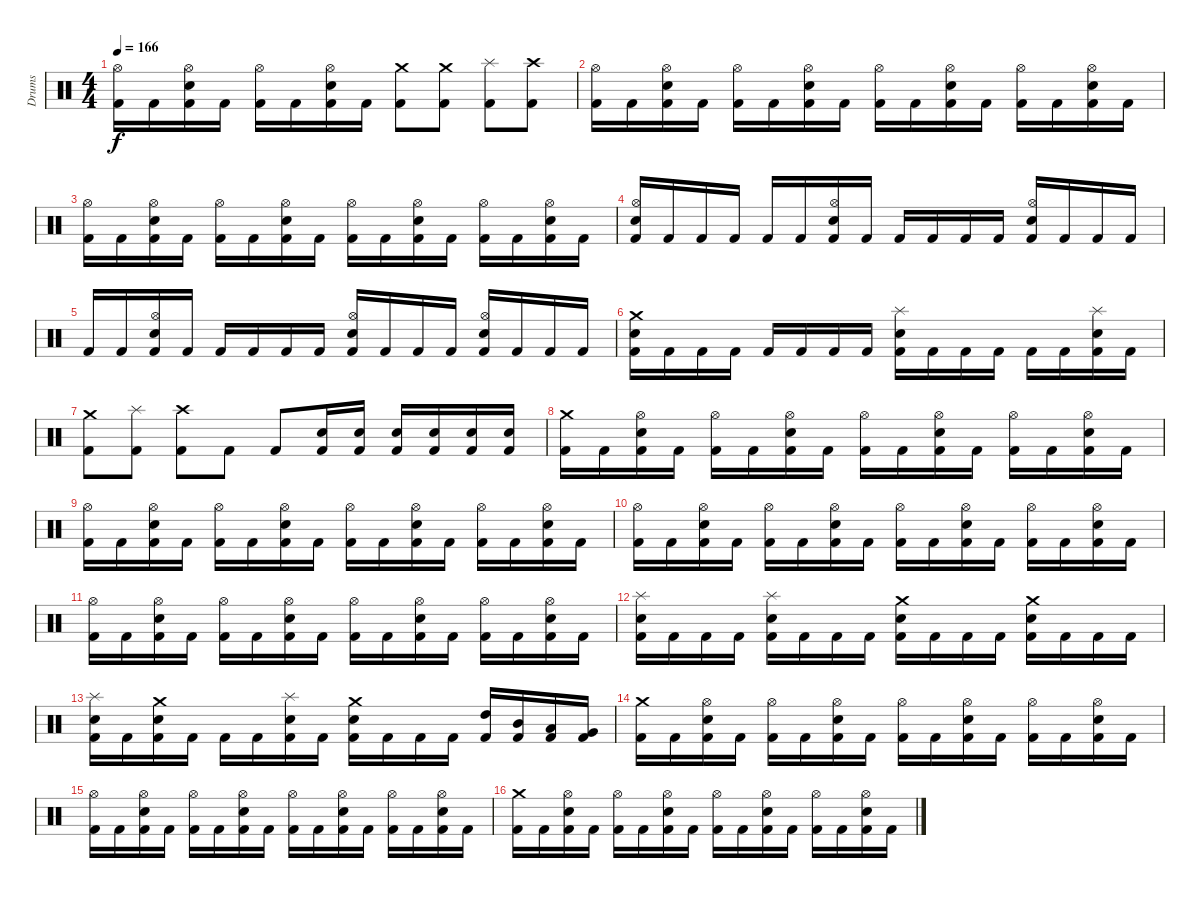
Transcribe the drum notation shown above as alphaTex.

\track ("Drums" "Drums") {instrument percussion}
\staff {score}
\articulation defaults
\ts (4 4)
\tempo 166
\clef neutral
\ks c
("Kick (hit) 2" "Hi-Hat (open)").16{dy f} "Kick (hit) 2".16 ("Kick (hit) 2" "Electric Snare (hit)" "Hi-Hat (open)").16 "Kick (hit) 2".16 ("Kick (hit) 2" "Hi-Hat (open)").16 "Kick (hit) 2".16 ("Kick (hit) 2" "Electric Snare (hit)" "Hi-Hat (open)").16 "Kick (hit) 2".16 ("Kick (hit) 2" "Crash medium (hit)").8 ("Kick (hit) 2" "Crash medium (hit)").8 ("Kick (hit) 2" "Splash (hit)").8 ("Kick (hit) 2" "Crash high (hit)").8 |
("Kick (hit) 2" "Hi-Hat (open)").16 "Kick (hit) 2".16 ("Kick (hit) 2" "Electric Snare (hit)" "Hi-Hat (open)").16 "Kick (hit) 2".16 ("Kick (hit) 2" "Hi-Hat (open)").16 "Kick (hit) 2".16 ("Kick (hit) 2" "Electric Snare (hit)" "Hi-Hat (open)").16 "Kick (hit) 2".16 ("Kick (hit) 2" "Hi-Hat (open)").16 "Kick (hit) 2".16 ("Kick (hit) 2" "Electric Snare (hit)" "Hi-Hat (open)").16 "Kick (hit) 2".16 ("Kick (hit) 2" "Hi-Hat (open)").16 "Kick (hit) 2".16 ("Kick (hit) 2" "Electric Snare (hit)" "Hi-Hat (open)").16 "Kick (hit) 2".16 |
("Kick (hit) 2" "Hi-Hat (open)").16 "Kick (hit) 2".16 ("Kick (hit) 2" "Electric Snare (hit)" "Hi-Hat (open)").16 "Kick (hit) 2".16 ("Kick (hit) 2" "Hi-Hat (open)").16 "Kick (hit) 2".16 ("Kick (hit) 2" "Electric Snare (hit)" "Hi-Hat (open)").16 "Kick (hit) 2".16 ("Kick (hit) 2" "Hi-Hat (open)").16 "Kick (hit) 2".16 ("Kick (hit) 2" "Electric Snare (hit)" "Hi-Hat (open)").16 "Kick (hit) 2".16 ("Kick (hit) 2" "Hi-Hat (open)").16 "Kick (hit) 2".16 ("Kick (hit) 2" "Electric Snare (hit)" "Hi-Hat (open)").16 "Kick (hit) 2".16 |
("Kick (hit) 2" "Electric Snare (hit)" "Hi-Hat (open)").16 "Kick (hit) 2".16 "Kick (hit) 2".16 "Kick (hit) 2".16 "Kick (hit) 2".16 "Kick (hit) 2".16 ("Kick (hit) 2" "Electric Snare (hit)" "Hi-Hat (open)").16 "Kick (hit) 2".16 "Kick (hit) 2".16 "Kick (hit) 2".16 "Kick (hit) 2".16 "Kick (hit) 2".16 ("Kick (hit) 2" "Electric Snare (hit)" "Hi-Hat (open)").16 "Kick (hit) 2".16 "Kick (hit) 2".16 "Kick (hit) 2".16 |
\section ("" "")
"Kick (hit) 2".16 "Kick (hit) 2".16 ("Kick (hit) 2" "Electric Snare (hit)" "Hi-Hat (open)").16 "Kick (hit) 2".16 "Kick (hit) 2".16 "Kick (hit) 2".16 "Kick (hit) 2".16 "Kick (hit) 2".16 ("Kick (hit) 2" "Electric Snare (hit)" "Hi-Hat (open)").16 "Kick (hit) 2".16 "Kick (hit) 2".16 "Kick (hit) 2".16 ("Kick (hit) 2" "Electric Snare (hit)" "Hi-Hat (open)").16 "Kick (hit) 2".16 "Kick (hit) 2".16 "Kick (hit) 2".16 |
("Kick (hit) 2" "Electric Snare (hit)" "Crash medium (hit)").16 "Kick (hit) 2".16 "Kick (hit) 2".16 "Kick (hit) 2".16 "Kick (hit) 2".16 "Kick (hit) 2".16 "Kick (hit) 2".16 "Kick (hit) 2".16 ("Kick (hit) 2" "Electric Snare (hit)" "Splash (hit)").16 "Kick (hit) 2".16 "Kick (hit) 2".16 "Kick (hit) 2".16 "Kick (hit) 2".16 "Kick (hit) 2".16 ("Kick (hit) 2" "Electric Snare (hit)" "Splash (hit)").16 "Kick (hit) 2".16 |
("Kick (hit) 2" "Crash medium (hit)").8 ("Kick (hit) 2" "Splash (hit)").8 ("Kick (hit) 2" "Crash high (hit)").8 "Kick (hit) 2".8 "Kick (hit) 2".8 ("Kick (hit) 2" "Electric Snare (hit)").16 ("Kick (hit) 2" "Electric Snare (hit)").16 ("Kick (hit) 2" "Electric Snare (hit)").16 ("Kick (hit) 2" "Electric Snare (hit)").16 ("Kick (hit) 2" "Electric Snare (hit)").16 ("Kick (hit) 2" "Electric Snare (hit)").16 |
("Kick (hit) 2" "Crash medium (hit)").16 "Kick (hit) 2".16 ("Kick (hit) 2" "Electric Snare (hit)" "Hi-Hat (open)").16 "Kick (hit) 2".16 ("Kick (hit) 2" "Hi-Hat (open)").16 "Kick (hit) 2".16 ("Kick (hit) 2" "Electric Snare (hit)" "Hi-Hat (open)").16 "Kick (hit) 2".16 ("Kick (hit) 2" "Hi-Hat (open)").16 "Kick (hit) 2".16 ("Kick (hit) 2" "Electric Snare (hit)" "Hi-Hat (open)").16 "Kick (hit) 2".16 ("Kick (hit) 2" "Hi-Hat (open)").16 "Kick (hit) 2".16 ("Kick (hit) 2" "Electric Snare (hit)" "Hi-Hat (open)").16 "Kick (hit) 2".16 |
("Kick (hit) 2" "Hi-Hat (open)").16 "Kick (hit) 2".16 ("Kick (hit) 2" "Electric Snare (hit)" "Hi-Hat (open)").16 "Kick (hit) 2".16 ("Kick (hit) 2" "Hi-Hat (open)").16 "Kick (hit) 2".16 ("Kick (hit) 2" "Electric Snare (hit)" "Hi-Hat (open)").16 "Kick (hit) 2".16 ("Kick (hit) 2" "Hi-Hat (open)").16 "Kick (hit) 2".16 ("Kick (hit) 2" "Electric Snare (hit)" "Hi-Hat (open)").16 "Kick (hit) 2".16 ("Kick (hit) 2" "Hi-Hat (open)").16 "Kick (hit) 2".16 ("Kick (hit) 2" "Electric Snare (hit)" "Hi-Hat (open)").16 "Kick (hit) 2".16 |
("Kick (hit) 2" "Hi-Hat (open)").16 "Kick (hit) 2".16 ("Kick (hit) 2" "Electric Snare (hit)" "Hi-Hat (open)").16 "Kick (hit) 2".16 ("Kick (hit) 2" "Hi-Hat (open)").16 "Kick (hit) 2".16 ("Kick (hit) 2" "Electric Snare (hit)" "Hi-Hat (open)").16 "Kick (hit) 2".16 ("Kick (hit) 2" "Hi-Hat (open)").16 "Kick (hit) 2".16 ("Kick (hit) 2" "Electric Snare (hit)" "Hi-Hat (open)").16 "Kick (hit) 2".16 ("Kick (hit) 2" "Hi-Hat (open)").16 "Kick (hit) 2".16 ("Kick (hit) 2" "Electric Snare (hit)" "Hi-Hat (open)").16 "Kick (hit) 2".16 |
("Kick (hit) 2" "Hi-Hat (open)").16 "Kick (hit) 2".16 ("Kick (hit) 2" "Electric Snare (hit)" "Hi-Hat (open)").16 "Kick (hit) 2".16 ("Kick (hit) 2" "Hi-Hat (open)").16 "Kick (hit) 2".16 ("Kick (hit) 2" "Electric Snare (hit)" "Hi-Hat (open)").16 "Kick (hit) 2".16 ("Kick (hit) 2" "Hi-Hat (open)").16 "Kick (hit) 2".16 ("Kick (hit) 2" "Electric Snare (hit)" "Hi-Hat (open)").16 "Kick (hit) 2".16 ("Kick (hit) 2" "Hi-Hat (open)").16 "Kick (hit) 2".16 ("Kick (hit) 2" "Electric Snare (hit)" "Hi-Hat (open)").16 "Kick (hit) 2".16 |
("Kick (hit) 2" "Electric Snare (hit)" "Splash (hit)").16 "Kick (hit) 2".16 "Kick (hit) 2".16 "Kick (hit) 2".16 ("Kick (hit) 2" "Electric Snare (hit)" "Splash (hit)").16 "Kick (hit) 2".16 "Kick (hit) 2".16 "Kick (hit) 2".16 ("Kick (hit) 2" "Electric Snare (hit)" "Crash medium (hit)").16 "Kick (hit) 2".16 "Kick (hit) 2".16 "Kick (hit) 2".16 ("Kick (hit) 2" "Electric Snare (hit)" "Crash medium (hit)").16 "Kick (hit) 2".16 "Kick (hit) 2".16 "Kick (hit) 2".16 |
("Kick (hit) 2" "Electric Snare (hit)" "Splash (hit)").16 "Kick (hit) 2".16 ("Kick (hit) 2" "Electric Snare (hit)" "Crash medium (hit)").16 "Kick (hit) 2".16 "Kick (hit) 2".16 "Kick (hit) 2".16 ("Kick (hit) 2" "Electric Snare (hit)" "Splash (hit)").16 "Kick (hit) 2".16 ("Kick (hit) 2" "Electric Snare (hit)" "Crash medium (hit)").16 "Kick (hit) 2".16 "Kick (hit) 2".16 "Kick (hit) 2".16 ("Kick (hit) 2" "High Tom (hit)").16 ("Kick (hit) 2" "Mid Tom (hit)").16 ("Kick (hit) 2" "Low Tom (hit)").16 ("Kick (hit) 2" "Very Low Tom (hit)").16 |
\section ("" "")
("Kick (hit) 2" "Crash medium (hit)").16 "Kick (hit) 2".16 ("Kick (hit) 2" "Electric Snare (hit)" "Hi-Hat (open)").16 "Kick (hit) 2".16 ("Kick (hit) 2" "Hi-Hat (open)").16 "Kick (hit) 2".16 ("Kick (hit) 2" "Electric Snare (hit)" "Hi-Hat (open)").16 "Kick (hit) 2".16 ("Kick (hit) 2" "Hi-Hat (open)").16 "Kick (hit) 2".16 ("Kick (hit) 2" "Electric Snare (hit)" "Hi-Hat (open)").16 "Kick (hit) 2".16 ("Kick (hit) 2" "Hi-Hat (open)").16 "Kick (hit) 2".16 ("Kick (hit) 2" "Electric Snare (hit)" "Hi-Hat (open)").16 "Kick (hit) 2".16 |
("Kick (hit) 2" "Hi-Hat (open)").16 "Kick (hit) 2".16 ("Kick (hit) 2" "Electric Snare (hit)" "Hi-Hat (open)").16 "Kick (hit) 2".16 ("Kick (hit) 2" "Hi-Hat (open)").16 "Kick (hit) 2".16 ("Kick (hit) 2" "Electric Snare (hit)" "Hi-Hat (open)").16 "Kick (hit) 2".16 ("Kick (hit) 2" "Hi-Hat (open)").16 "Kick (hit) 2".16 ("Kick (hit) 2" "Electric Snare (hit)" "Hi-Hat (open)").16 "Kick (hit) 2".16 ("Kick (hit) 2" "Hi-Hat (open)").16 "Kick (hit) 2".16 ("Kick (hit) 2" "Electric Snare (hit)" "Hi-Hat (open)").16 "Kick (hit) 2".16 |
("Kick (hit) 2" "Crash medium (hit)").16 "Kick (hit) 2".16 ("Kick (hit) 2" "Electric Snare (hit)" "Hi-Hat (open)").16 "Kick (hit) 2".16 ("Kick (hit) 2" "Hi-Hat (open)").16 "Kick (hit) 2".16 ("Kick (hit) 2" "Electric Snare (hit)" "Hi-Hat (open)").16 "Kick (hit) 2".16 ("Kick (hit) 2" "Hi-Hat (open)").16 "Kick (hit) 2".16 ("Kick (hit) 2" "Electric Snare (hit)" "Hi-Hat (open)").16 "Kick (hit) 2".16 ("Kick (hit) 2" "Hi-Hat (open)").16 "Kick (hit) 2".16 ("Kick (hit) 2" "Electric Snare (hit)" "Hi-Hat (open)").16 "Kick (hit) 2".16
